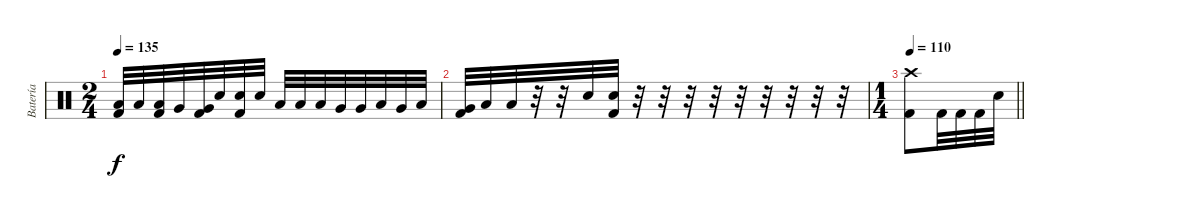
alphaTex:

\track ("Batería   (Jony)" "Batería   ") {instrument percussion}
\staff {score}
\articulation defaults
\ts (2 4)
\tempo 135
\clef neutral
\ks c
("Low Tom (hit)" "Kick (hit) 2").32{dy f} "Low Tom (hit)".32 ("Low Tom (hit)" "Kick (hit) 2").32 "Very Low Tom (hit)".32 ("Very Low Tom (hit)" "Kick (hit) 2").32 "Electric Snare (hit)".32 ("Electric Snare (hit)" "Kick (hit) 2").32 "Electric Snare (hit)".32 "Low Tom (hit)".32 "Low Tom (hit)".32 "Low Tom (hit)".32 "Very Low Tom (hit)".32 "Very Low Tom (hit)".32 "Low Tom (hit)".32 "Very Low Tom (hit)".32 "Low Tom (hit)".32 |
("Very Low Tom (hit)" "Kick (hit) 2").32 "Low Tom (hit)".32 "Low Tom (hit)".32 r.32 r.32 "Electric Snare (hit)".32 ("Electric Snare (hit)" "Kick (hit) 2").32 r.32 r.32 r.32 r.32 r.32 r.32 r.32 r.32 r.32 |
\ts (1 4)
\tempo 110
\barLineRight lightlight
("Crash high (hit)" "Kick (hit) 2").8 "Kick (hit) 2".32 "Kick (hit) 2".32 "Kick (hit) 2".32 "Electric Snare (hit)".32
